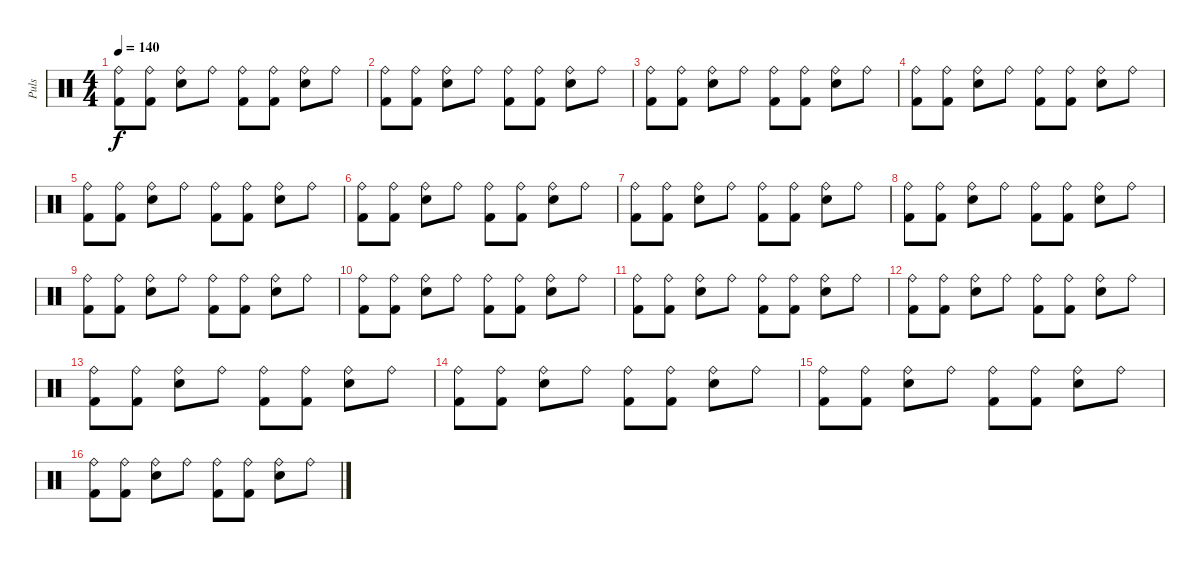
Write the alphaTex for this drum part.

\track ("Puls" "Puls") {instrument percussion}
\staff {score}
\articulation defaults
\ts (4 4)
\tempo 140
\clef neutral
\ks c
("Ride (bell)" "Kick (hit) 2").8{dy f} ("Ride (bell)" "Kick (hit) 2").8 ("Ride (bell)" "Snare (hit) 2").8 "Ride (bell)".8 ("Ride (bell)" "Kick (hit) 2").8 ("Ride (bell)" "Kick (hit) 2").8 ("Ride (bell)" "Snare (hit) 2").8 "Ride (bell)".8 |
("Ride (bell)" "Kick (hit) 2").8 ("Ride (bell)" "Kick (hit) 2").8 ("Ride (bell)" "Snare (hit) 2").8 "Ride (bell)".8 ("Ride (bell)" "Kick (hit) 2").8 ("Ride (bell)" "Kick (hit) 2").8 ("Ride (bell)" "Snare (hit) 2").8 "Ride (bell)".8 |
("Ride (bell)" "Kick (hit) 2").8 ("Ride (bell)" "Kick (hit) 2").8 ("Ride (bell)" "Snare (hit) 2").8 "Ride (bell)".8 ("Ride (bell)" "Kick (hit) 2").8 ("Ride (bell)" "Kick (hit) 2").8 ("Ride (bell)" "Snare (hit) 2").8 "Ride (bell)".8 |
("Ride (bell)" "Kick (hit) 2").8 ("Ride (bell)" "Kick (hit) 2").8 ("Ride (bell)" "Snare (hit) 2").8 "Ride (bell)".8 ("Ride (bell)" "Kick (hit) 2").8 ("Ride (bell)" "Kick (hit) 2").8 ("Ride (bell)" "Snare (hit) 2").8 "Ride (bell)".8 |
("Ride (bell)" "Kick (hit) 2").8 ("Ride (bell)" "Kick (hit) 2").8 ("Ride (bell)" "Snare (hit) 2").8 "Ride (bell)".8 ("Ride (bell)" "Kick (hit) 2").8 ("Ride (bell)" "Kick (hit) 2").8 ("Ride (bell)" "Snare (hit) 2").8 "Ride (bell)".8 |
("Ride (bell)" "Kick (hit) 2").8 ("Ride (bell)" "Kick (hit) 2").8 ("Ride (bell)" "Snare (hit) 2").8 "Ride (bell)".8 ("Ride (bell)" "Kick (hit) 2").8 ("Ride (bell)" "Kick (hit) 2").8 ("Ride (bell)" "Snare (hit) 2").8 "Ride (bell)".8 |
("Ride (bell)" "Kick (hit) 2").8 ("Ride (bell)" "Kick (hit) 2").8 ("Ride (bell)" "Snare (hit) 2").8 "Ride (bell)".8 ("Ride (bell)" "Kick (hit) 2").8 ("Ride (bell)" "Kick (hit) 2").8 ("Ride (bell)" "Snare (hit) 2").8 "Ride (bell)".8 |
("Ride (bell)" "Kick (hit) 2").8 ("Ride (bell)" "Kick (hit) 2").8 ("Ride (bell)" "Snare (hit) 2").8 "Ride (bell)".8 ("Ride (bell)" "Kick (hit) 2").8 ("Ride (bell)" "Kick (hit) 2").8 ("Ride (bell)" "Snare (hit) 2").8 "Ride (bell)".8 |
("Ride (bell)" "Kick (hit) 2").8 ("Ride (bell)" "Kick (hit) 2").8 ("Ride (bell)" "Snare (hit) 2").8 "Ride (bell)".8 ("Ride (bell)" "Kick (hit) 2").8 ("Ride (bell)" "Kick (hit) 2").8 ("Ride (bell)" "Snare (hit) 2").8 "Ride (bell)".8 |
("Ride (bell)" "Kick (hit) 2").8 ("Ride (bell)" "Kick (hit) 2").8 ("Ride (bell)" "Snare (hit) 2").8 "Ride (bell)".8 ("Ride (bell)" "Kick (hit) 2").8 ("Ride (bell)" "Kick (hit) 2").8 ("Ride (bell)" "Snare (hit) 2").8 "Ride (bell)".8 |
("Ride (bell)" "Kick (hit) 2").8 ("Ride (bell)" "Kick (hit) 2").8 ("Ride (bell)" "Snare (hit) 2").8 "Ride (bell)".8 ("Ride (bell)" "Kick (hit) 2").8 ("Ride (bell)" "Kick (hit) 2").8 ("Ride (bell)" "Snare (hit) 2").8 "Ride (bell)".8 |
("Ride (bell)" "Kick (hit) 2").8 ("Ride (bell)" "Kick (hit) 2").8 ("Ride (bell)" "Snare (hit) 2").8 "Ride (bell)".8 ("Ride (bell)" "Kick (hit) 2").8 ("Ride (bell)" "Kick (hit) 2").8 ("Ride (bell)" "Snare (hit) 2").8 "Ride (bell)".8 |
("Ride (bell)" "Kick (hit) 2").8 ("Ride (bell)" "Kick (hit) 2").8 ("Ride (bell)" "Snare (hit) 2").8 "Ride (bell)".8 ("Ride (bell)" "Kick (hit) 2").8 ("Ride (bell)" "Kick (hit) 2").8 ("Ride (bell)" "Snare (hit) 2").8 "Ride (bell)".8 |
("Ride (bell)" "Kick (hit) 2").8 ("Ride (bell)" "Kick (hit) 2").8 ("Ride (bell)" "Snare (hit) 2").8 "Ride (bell)".8 ("Ride (bell)" "Kick (hit) 2").8 ("Ride (bell)" "Kick (hit) 2").8 ("Ride (bell)" "Snare (hit) 2").8 "Ride (bell)".8 |
("Ride (bell)" "Kick (hit) 2").8 ("Ride (bell)" "Kick (hit) 2").8 ("Ride (bell)" "Snare (hit) 2").8 "Ride (bell)".8 ("Ride (bell)" "Kick (hit) 2").8 ("Ride (bell)" "Kick (hit) 2").8 ("Ride (bell)" "Snare (hit) 2").8 "Ride (bell)".8 |
("Ride (bell)" "Kick (hit) 2").8 ("Ride (bell)" "Kick (hit) 2").8 ("Ride (bell)" "Snare (hit) 2").8 "Ride (bell)".8 ("Ride (bell)" "Kick (hit) 2").8 ("Ride (bell)" "Kick (hit) 2").8 ("Ride (bell)" "Snare (hit) 2").8 "Ride (bell)".8
